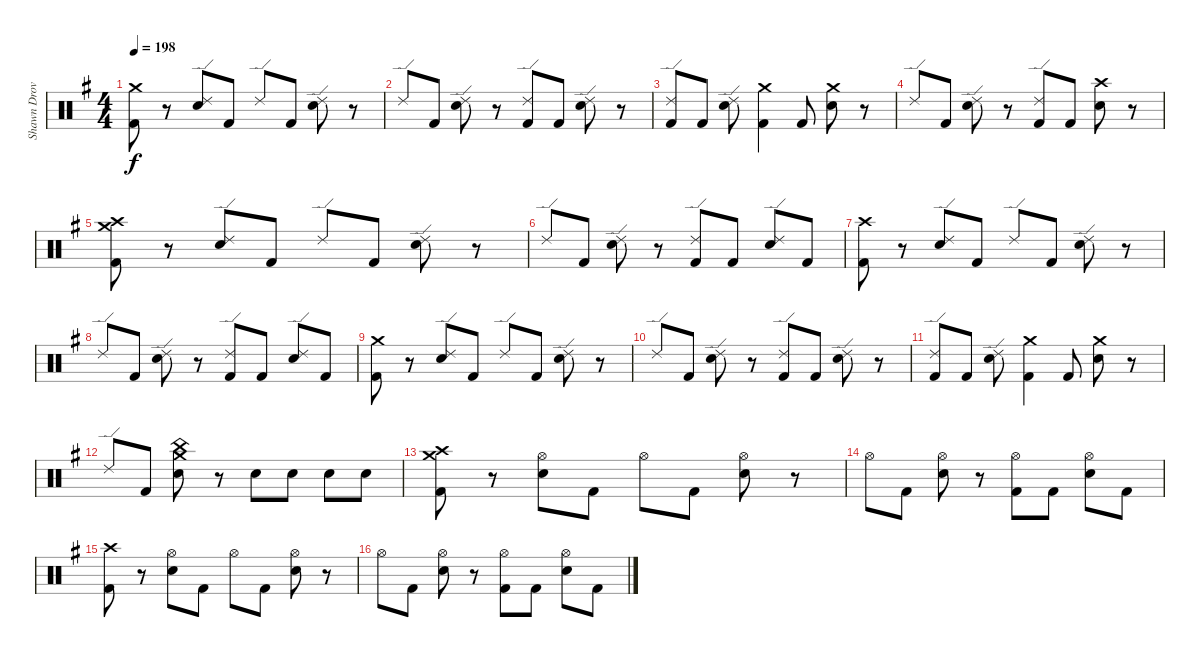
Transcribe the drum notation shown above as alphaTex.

\track ("Shawn Drover" "Shawn Drov") {instrument percussion}
\staff {score}
\articulation defaults
\ts (4 4)
\tempo 198
\clef neutral
\ks g
("Crash medium (hit)" "Kick (hit) 2").8{dy f} r.8 ("Ride (edge) 2" "Snare (hit) 2").8 "Kick (hit) 2".8 "Ride (edge) 2".8 "Kick (hit) 2".8 ("Ride (edge) 2" "Snare (hit) 2").8 r.8 |
"Ride (edge) 2".8 "Kick (hit) 2".8 ("Ride (edge) 2" "Snare (hit) 2").8 r.8 ("Ride (edge) 2" "Kick (hit) 2").8 "Kick (hit) 2".8 ("Ride (edge) 2" "Snare (hit) 2").8 r.8 |
("Ride (edge) 2" "Kick (hit) 2").8 "Kick (hit) 2".8 ("Ride (edge) 2" "Snare (hit) 2").8 ("Crash medium (hit)" "Kick (hit) 2").4 "Kick (hit) 2".8 ("Crash medium (hit)" "Snare (hit) 2").8 r.8 |
"Ride (edge) 2".8 "Kick (hit) 2".8 ("Ride (edge) 2" "Snare (hit) 2").8 r.8 ("Ride (edge) 2" "Kick (hit) 2").8 "Kick (hit) 2".8 ("Crash high (hit)" "Snare (hit) 2").8 r.8 |
("Crash medium (hit)" "Crash high (hit)" "Kick (hit) 2").8 r.8 ("Ride (edge) 2" "Snare (hit) 2").8 "Kick (hit) 2".8 "Ride (edge) 2".8 "Kick (hit) 2".8 ("Ride (edge) 2" "Snare (hit) 2").8 r.8 |
"Ride (edge) 2".8 "Kick (hit) 2".8 ("Ride (edge) 2" "Snare (hit) 2").8 r.8 ("Ride (edge) 2" "Kick (hit) 2").8 "Kick (hit) 2".8 ("Ride (edge) 2" "Snare (hit) 2").8 "Kick (hit) 2".8 |
("Crash high (hit)" "Kick (hit) 2").8 r.8 ("Ride (edge) 2" "Snare (hit) 2").8 "Kick (hit) 2".8 "Ride (edge) 2".8 "Kick (hit) 2".8 ("Ride (edge) 2" "Snare (hit) 2").8 r.8 |
"Ride (edge) 2".8 "Kick (hit) 2".8 ("Ride (edge) 2" "Snare (hit) 2").8 r.8 ("Ride (edge) 2" "Kick (hit) 2").8 "Kick (hit) 2".8 ("Ride (edge) 2" "Snare (hit) 2").8 "Kick (hit) 2".8 |
("Crash medium (hit)" "Kick (hit) 2").8 r.8 ("Ride (edge) 2" "Snare (hit) 2").8 "Kick (hit) 2".8 "Ride (edge) 2".8 "Kick (hit) 2".8 ("Ride (edge) 2" "Snare (hit) 2").8 r.8 |
"Ride (edge) 2".8 "Kick (hit) 2".8 ("Ride (edge) 2" "Snare (hit) 2").8 r.8 ("Ride (edge) 2" "Kick (hit) 2").8 "Kick (hit) 2".8 ("Ride (edge) 2" "Snare (hit) 2").8 r.8 |
("Ride (edge) 2" "Kick (hit) 2").8 "Kick (hit) 2".8 ("Ride (edge) 2" "Snare (hit) 2").8 ("Crash medium (hit)" "Kick (hit) 2").4 "Kick (hit) 2".8 ("Crash medium (hit)" "Snare (hit) 2").8 r.8 |
"Ride (edge) 2".8 "Kick (hit) 2".8 ("Crash medium (hit)" "China (hit)" "Snare (hit) 2").8 r.8 "Snare (hit) 2".8 "Snare (hit) 2".8 "Snare (hit) 2".8 "Snare (hit) 2".8 |
("Crash medium (hit)" "Crash high (hit)" "Kick (hit) 2").8 r.8 ("Hi-Hat (open)" "Snare (hit) 2").8 "Kick (hit) 2".8 "Hi-Hat (open)".8 "Kick (hit) 2".8 ("Hi-Hat (open)" "Snare (hit) 2").8 r.8 |
"Hi-Hat (open)".8 "Kick (hit) 2".8 ("Hi-Hat (open)" "Snare (hit) 2").8 r.8 ("Hi-Hat (open)" "Kick (hit) 2").8 "Kick (hit) 2".8 ("Hi-Hat (open)" "Snare (hit) 2").8 "Kick (hit) 2".8 |
("Crash high (hit)" "Kick (hit) 2").8 r.8 ("Hi-Hat (open)" "Snare (hit) 2").8 "Kick (hit) 2".8 "Hi-Hat (open)".8 "Kick (hit) 2".8 ("Hi-Hat (open)" "Snare (hit) 2").8 r.8 |
"Hi-Hat (open)".8 "Kick (hit) 2".8 ("Hi-Hat (open)" "Snare (hit) 2").8 r.8 ("Hi-Hat (open)" "Kick (hit) 2").8 "Kick (hit) 2".8 ("Hi-Hat (open)" "Snare (hit) 2").8 "Kick (hit) 2".8
